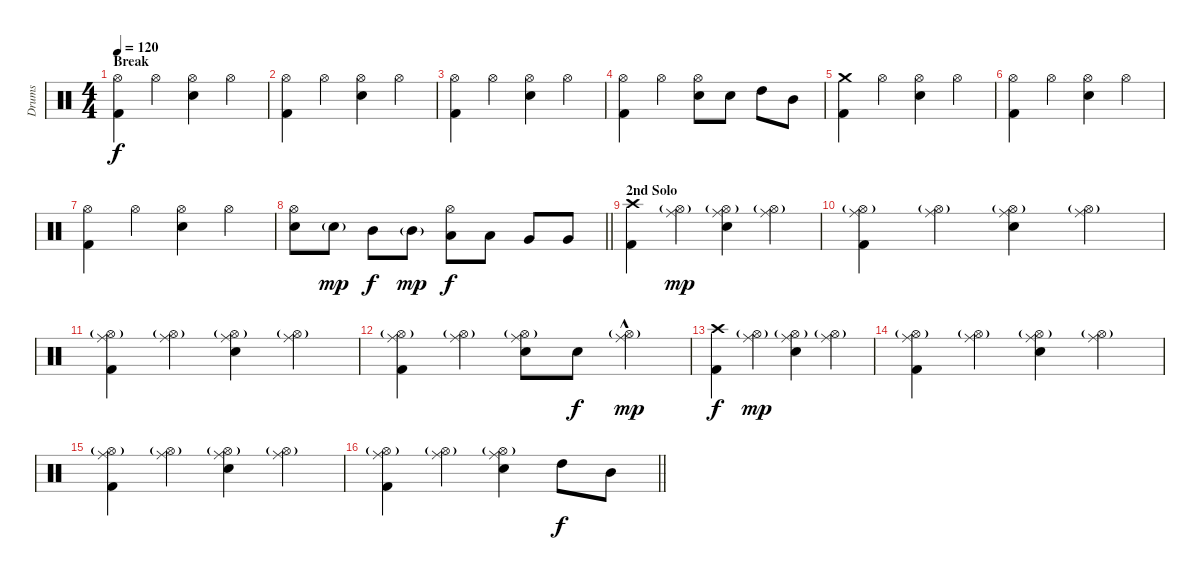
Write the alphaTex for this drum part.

\track ("Drums" "Drums") {instrument percussion}
\staff {score}
\articulation defaults
\ts (4 4)
\section ("" "Break")
\tempo 120
\clef neutral
\ks c
("Hi-Hat (open)" "Kick (hit) 2").4{dy f} "Hi-Hat (open)".4 ("Hi-Hat (open)" "Electric Snare (hit)").4 "Hi-Hat (open)".4 |
("Hi-Hat (open)" "Kick (hit) 2").4 "Hi-Hat (open)".4 ("Hi-Hat (open)" "Electric Snare (hit)").4 "Hi-Hat (open)".4 |
("Hi-Hat (open)" "Kick (hit) 2").4 "Hi-Hat (open)".4 ("Hi-Hat (open)" "Electric Snare (hit)").4 "Hi-Hat (open)".4 |
("Hi-Hat (open)" "Kick (hit) 2").4 "Hi-Hat (open)".4 ("Hi-Hat (open)" "Electric Snare (hit)").8 "Electric Snare (hit)".8 "High Tom (hit)".8 "Mid Tom (hit)".8 |
("Crash medium (hit)" "Kick (hit) 2").4 "Hi-Hat (open)".4 ("Hi-Hat (open)" "Electric Snare (hit)").4 "Hi-Hat (open)".4 |
("Hi-Hat (open)" "Kick (hit) 2").4 "Hi-Hat (open)".4 ("Hi-Hat (open)" "Electric Snare (hit)").4 "Hi-Hat (open)".4 |
("Hi-Hat (open)" "Kick (hit) 2").4 "Hi-Hat (open)".4 ("Hi-Hat (open)" "Electric Snare (hit)").4 "Hi-Hat (open)".4 |
\barLineRight lightlight
("Hi-Hat (open)" "Electric Snare (hit)").8 "Electric Snare (hit)"{g}.8{dy mp} "Mid Tom (hit)".8{dy f} "Mid Tom (hit)"{g}.8{dy mp} ("Hi-Hat (open)" "Low Tom (hit)").8{dy f} "Low Tom (hit)".8 "Very Low Tom (hit)".8 "Very Low Tom (hit)".8 |
\section ("" "2nd Solo")
("Crash high (hit)" "Kick (hit) 2").4 ("Ride (middle)" "Hi-Hat (open)"{g}).4{dy mp} ("Ride (middle)" "Hi-Hat (open)"{g} "Electric Snare (hit)").4 ("Ride (middle)" "Hi-Hat (open)"{g}).4 |
("Ride (middle)" "Hi-Hat (open)"{g} "Kick (hit) 2").4 ("Ride (middle)" "Hi-Hat (open)"{g}).4 ("Ride (middle)" "Hi-Hat (open)"{g} "Electric Snare (hit)").4 ("Ride (middle)" "Hi-Hat (open)"{g}).4 |
("Ride (middle)" "Hi-Hat (open)"{g} "Kick (hit) 2").4 ("Ride (middle)" "Hi-Hat (open)"{g}).4 ("Ride (middle)" "Hi-Hat (open)"{g} "Electric Snare (hit)").4 ("Ride (middle)" "Hi-Hat (open)"{g}).4 |
("Ride (middle)" "Hi-Hat (open)"{g} "Kick (hit) 2").4 ("Ride (middle)" "Hi-Hat (open)"{g}).4 ("Ride (middle)" "Hi-Hat (open)"{g} "Electric Snare (hit)").8 "Electric Snare (hit)".8{dy f} ("Ride (middle)"{hac} "Hi-Hat (open)"{g}).4{dy mp} |
("Crash high (hit)" "Kick (hit) 2").4{dy f} ("Ride (middle)" "Hi-Hat (open)"{g}).4{dy mp} ("Ride (middle)" "Hi-Hat (open)"{g} "Electric Snare (hit)").4 ("Ride (middle)" "Hi-Hat (open)"{g}).4 |
("Ride (middle)" "Hi-Hat (open)"{g} "Kick (hit) 2").4 ("Ride (middle)" "Hi-Hat (open)"{g}).4 ("Ride (middle)" "Hi-Hat (open)"{g} "Electric Snare (hit)").4 ("Ride (middle)" "Hi-Hat (open)"{g}).4 |
("Ride (middle)" "Hi-Hat (open)"{g} "Kick (hit) 2").4 ("Ride (middle)" "Hi-Hat (open)"{g}).4 ("Ride (middle)" "Hi-Hat (open)"{g} "Electric Snare (hit)").4 ("Ride (middle)" "Hi-Hat (open)"{g}).4 |
\barLineRight lightlight
("Ride (middle)" "Hi-Hat (open)"{g} "Kick (hit) 2").4 ("Ride (middle)" "Hi-Hat (open)"{g}).4 ("Ride (middle)" "Hi-Hat (open)"{g} "Electric Snare (hit)").4 "High Tom (hit)".8{dy f} "Mid Tom (hit)".8
